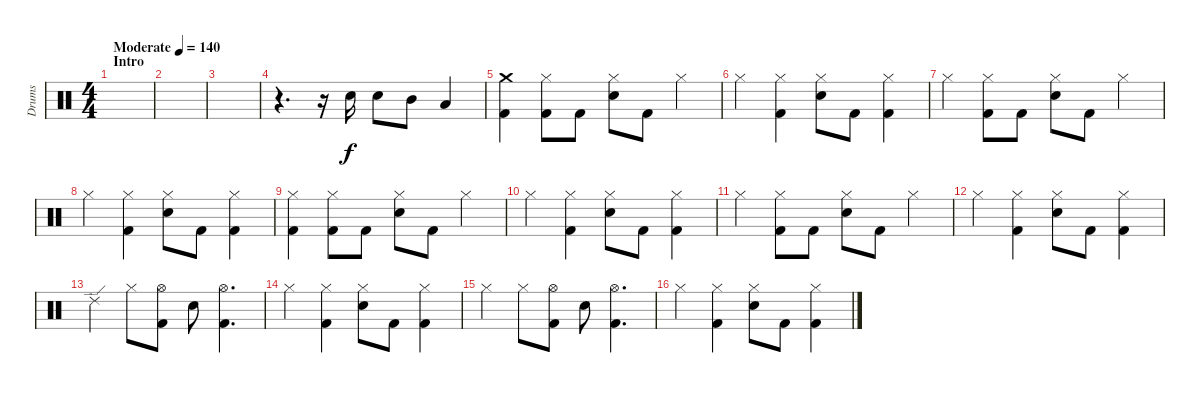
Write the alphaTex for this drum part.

\track ("Drums" "Drums") {instrument percussion}
\staff {score}
\articulation defaults
\ts (4 4)
\section ("" "Intro")
\tempo (140 "Moderate")
\clef neutral
\ks c
|
|
|
r.4{d} r.16 "Electric Snare (hit)".16 "Electric Snare (hit)".8 "Mid Tom (hit)".8 "Low Tom (hit)".4 |
("Crash medium (hit)" "Kick (hit) 2").4 ("Hi-Hat (closed)" "Kick (hit) 2").8 "Kick (hit) 2".8 ("Hi-Hat (closed)" "Electric Snare (hit)").8 "Kick (hit) 2".8 "Hi-Hat (closed)".4 |
"Hi-Hat (closed)".4 ("Hi-Hat (closed)" "Kick (hit) 2").4 ("Hi-Hat (closed)" "Electric Snare (hit)").8 "Kick (hit) 2".8 ("Hi-Hat (closed)" "Kick (hit) 2").4 |
"Hi-Hat (closed)".4 ("Hi-Hat (closed)" "Kick (hit) 2").8 "Kick (hit) 2".8 ("Hi-Hat (closed)" "Electric Snare (hit)").8 "Kick (hit) 2".8 "Hi-Hat (closed)".4 |
"Hi-Hat (closed)".4 ("Hi-Hat (closed)" "Kick (hit) 2").4 ("Hi-Hat (closed)" "Electric Snare (hit)").8 "Kick (hit) 2".8 ("Hi-Hat (closed)" "Kick (hit) 2").4 |
("Hi-Hat (closed)" "Kick (hit) 2").4 ("Hi-Hat (closed)" "Kick (hit) 2").8 "Kick (hit) 2".8 ("Hi-Hat (closed)" "Electric Snare (hit)").8 "Kick (hit) 2".8 "Hi-Hat (closed)".4 |
"Hi-Hat (closed)".4 ("Hi-Hat (closed)" "Kick (hit) 2").4 ("Hi-Hat (closed)" "Electric Snare (hit)").8 "Kick (hit) 2".8 ("Hi-Hat (closed)" "Kick (hit) 2").4 |
"Hi-Hat (closed)".4 ("Hi-Hat (closed)" "Kick (hit) 2").8 "Kick (hit) 2".8 ("Hi-Hat (closed)" "Electric Snare (hit)").8 "Kick (hit) 2".8 "Hi-Hat (closed)".4 |
"Hi-Hat (closed)".4 ("Hi-Hat (closed)" "Kick (hit) 2").4 ("Hi-Hat (closed)" "Electric Snare (hit)").8 "Kick (hit) 2".8 ("Hi-Hat (closed)" "Kick (hit) 2").4 |
"Ride (edge) 2".4 "Hi-Hat (closed)".8 ("Hi-Hat (open)" "Kick (hit) 2").8 "Electric Snare (hit)".8 ("Hi-Hat (open)" "Kick (hit) 2").4{d} |
"Hi-Hat (closed)".4 ("Hi-Hat (closed)" "Kick (hit) 2").4 ("Hi-Hat (closed)" "Electric Snare (hit)").8 "Kick (hit) 2".8 ("Hi-Hat (closed)" "Kick (hit) 2").4 |
"Hi-Hat (closed)".4 "Hi-Hat (closed)".8 ("Hi-Hat (open)" "Kick (hit) 2").8 "Electric Snare (hit)".8 ("Hi-Hat (open)" "Kick (hit) 2").4{d} |
"Hi-Hat (closed)".4 ("Hi-Hat (closed)" "Kick (hit) 2").4 ("Hi-Hat (closed)" "Electric Snare (hit)").8 "Kick (hit) 2".8 ("Hi-Hat (closed)" "Kick (hit) 2").4
